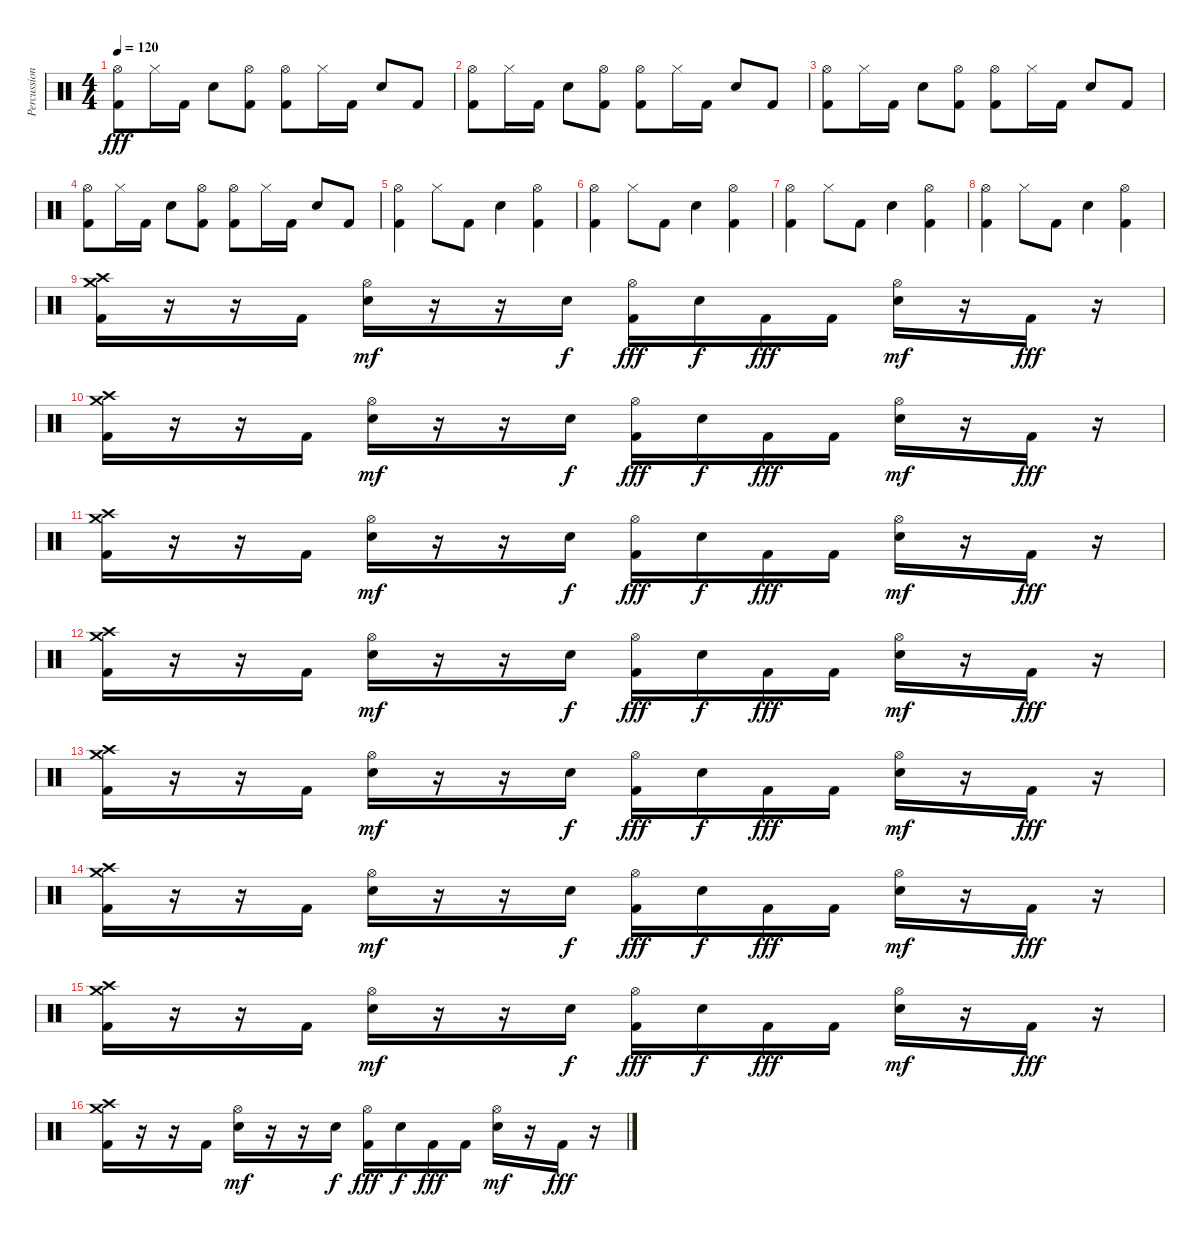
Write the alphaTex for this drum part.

\track ("Percussion" "Percussion") {instrument percussion}
\staff {score}
\articulation defaults
\ts (4 4)
\tempo 120
\clef neutral
\ks c
("Hi-Hat (open)" "Kick (hit) 2").8{dy fff} "Hi-Hat (closed)".16 "Kick (hit) 2".16 "Electric Snare (hit)".8 ("Hi-Hat (open)" "Kick (hit) 2").8 ("Hi-Hat (open)" "Kick (hit) 2").8 "Hi-Hat (closed)".16 "Kick (hit) 2".16 "Electric Snare (hit)".8 "Kick (hit) 2".8 |
("Hi-Hat (open)" "Kick (hit) 2").8 "Hi-Hat (closed)".16 "Kick (hit) 2".16 "Electric Snare (hit)".8 ("Hi-Hat (open)" "Kick (hit) 2").8 ("Hi-Hat (open)" "Kick (hit) 2").8 "Hi-Hat (closed)".16 "Kick (hit) 2".16 "Electric Snare (hit)".8 "Kick (hit) 2".8 |
("Hi-Hat (open)" "Kick (hit) 2").8 "Hi-Hat (closed)".16 "Kick (hit) 2".16 "Electric Snare (hit)".8 ("Hi-Hat (open)" "Kick (hit) 2").8 ("Hi-Hat (open)" "Kick (hit) 2").8 "Hi-Hat (closed)".16 "Kick (hit) 2".16 "Electric Snare (hit)".8 "Kick (hit) 2".8 |
("Hi-Hat (open)" "Kick (hit) 2").8 "Hi-Hat (closed)".16 "Kick (hit) 2".16 "Electric Snare (hit)".8 ("Hi-Hat (open)" "Kick (hit) 2").8 ("Hi-Hat (open)" "Kick (hit) 2").8 "Hi-Hat (closed)".16 "Kick (hit) 2".16 "Electric Snare (hit)".8 "Kick (hit) 2".8 |
("Hi-Hat (open)" "Kick (hit) 2").4 "Hi-Hat (closed)".8 "Kick (hit) 2".8 "Electric Snare (hit)".4 ("Hi-Hat (open)" "Kick (hit) 2").4 |
("Hi-Hat (open)" "Kick (hit) 2").4 "Hi-Hat (closed)".8 "Kick (hit) 2".8 "Electric Snare (hit)".4 ("Hi-Hat (open)" "Kick (hit) 2").4 |
("Hi-Hat (open)" "Kick (hit) 2").4 "Hi-Hat (closed)".8 "Kick (hit) 2".8 "Electric Snare (hit)".4 ("Hi-Hat (open)" "Kick (hit) 2").4 |
("Hi-Hat (open)" "Kick (hit) 2").4 "Hi-Hat (closed)".8 "Kick (hit) 2".8 "Electric Snare (hit)".4 ("Hi-Hat (open)" "Kick (hit) 2").4 |
("Crash medium (hit)" "Crash high (hit)" "Kick (hit) 2").16 r.16 r.16 "Kick (hit) 2".16 ("Hi-Hat (open)" "Snare (hit) 2").16{dy mf} r.16 r.16 "Snare (hit) 2".16{dy f} ("Hi-Hat (open)" "Kick (hit) 2").16{dy fff} "Snare (hit) 2".16{dy f} "Kick (hit) 2".16{dy fff} "Kick (hit) 2".16 ("Hi-Hat (open)" "Snare (hit) 2").16{dy mf} r.16 "Kick (hit) 2".16{dy fff} r.16 |
("Crash medium (hit)" "Crash high (hit)" "Kick (hit) 2").16 r.16 r.16 "Kick (hit) 2".16 ("Hi-Hat (open)" "Snare (hit) 2").16{dy mf} r.16 r.16 "Snare (hit) 2".16{dy f} ("Hi-Hat (open)" "Kick (hit) 2").16{dy fff} "Snare (hit) 2".16{dy f} "Kick (hit) 2".16{dy fff} "Kick (hit) 2".16 ("Hi-Hat (open)" "Snare (hit) 2").16{dy mf} r.16 "Kick (hit) 2".16{dy fff} r.16 |
("Crash medium (hit)" "Crash high (hit)" "Kick (hit) 2").16 r.16 r.16 "Kick (hit) 2".16 ("Hi-Hat (open)" "Snare (hit) 2").16{dy mf} r.16 r.16 "Snare (hit) 2".16{dy f} ("Hi-Hat (open)" "Kick (hit) 2").16{dy fff} "Snare (hit) 2".16{dy f} "Kick (hit) 2".16{dy fff} "Kick (hit) 2".16 ("Hi-Hat (open)" "Snare (hit) 2").16{dy mf} r.16 "Kick (hit) 2".16{dy fff} r.16 |
("Crash medium (hit)" "Crash high (hit)" "Kick (hit) 2").16 r.16 r.16 "Kick (hit) 2".16 ("Hi-Hat (open)" "Snare (hit) 2").16{dy mf} r.16 r.16 "Snare (hit) 2".16{dy f} ("Hi-Hat (open)" "Kick (hit) 2").16{dy fff} "Snare (hit) 2".16{dy f} "Kick (hit) 2".16{dy fff} "Kick (hit) 2".16 ("Hi-Hat (open)" "Snare (hit) 2").16{dy mf} r.16 "Kick (hit) 2".16{dy fff} r.16 |
("Crash medium (hit)" "Crash high (hit)" "Kick (hit) 2").16 r.16 r.16 "Kick (hit) 2".16 ("Hi-Hat (open)" "Snare (hit) 2").16{dy mf} r.16 r.16 "Snare (hit) 2".16{dy f} ("Hi-Hat (open)" "Kick (hit) 2").16{dy fff} "Snare (hit) 2".16{dy f} "Kick (hit) 2".16{dy fff} "Kick (hit) 2".16 ("Hi-Hat (open)" "Snare (hit) 2").16{dy mf} r.16 "Kick (hit) 2".16{dy fff} r.16 |
("Crash medium (hit)" "Crash high (hit)" "Kick (hit) 2").16 r.16 r.16 "Kick (hit) 2".16 ("Hi-Hat (open)" "Snare (hit) 2").16{dy mf} r.16 r.16 "Snare (hit) 2".16{dy f} ("Hi-Hat (open)" "Kick (hit) 2").16{dy fff} "Snare (hit) 2".16{dy f} "Kick (hit) 2".16{dy fff} "Kick (hit) 2".16 ("Hi-Hat (open)" "Snare (hit) 2").16{dy mf} r.16 "Kick (hit) 2".16{dy fff} r.16 |
("Crash medium (hit)" "Crash high (hit)" "Kick (hit) 2").16 r.16 r.16 "Kick (hit) 2".16 ("Hi-Hat (open)" "Snare (hit) 2").16{dy mf} r.16 r.16 "Snare (hit) 2".16{dy f} ("Hi-Hat (open)" "Kick (hit) 2").16{dy fff} "Snare (hit) 2".16{dy f} "Kick (hit) 2".16{dy fff} "Kick (hit) 2".16 ("Hi-Hat (open)" "Snare (hit) 2").16{dy mf} r.16 "Kick (hit) 2".16{dy fff} r.16 |
("Crash medium (hit)" "Crash high (hit)" "Kick (hit) 2").16 r.16 r.16 "Kick (hit) 2".16 ("Hi-Hat (open)" "Snare (hit) 2").16{dy mf} r.16 r.16 "Snare (hit) 2".16{dy f} ("Hi-Hat (open)" "Kick (hit) 2").16{dy fff} "Snare (hit) 2".16{dy f} "Kick (hit) 2".16{dy fff} "Kick (hit) 2".16 ("Hi-Hat (open)" "Snare (hit) 2").16{dy mf} r.16 "Kick (hit) 2".16{dy fff} r.16
